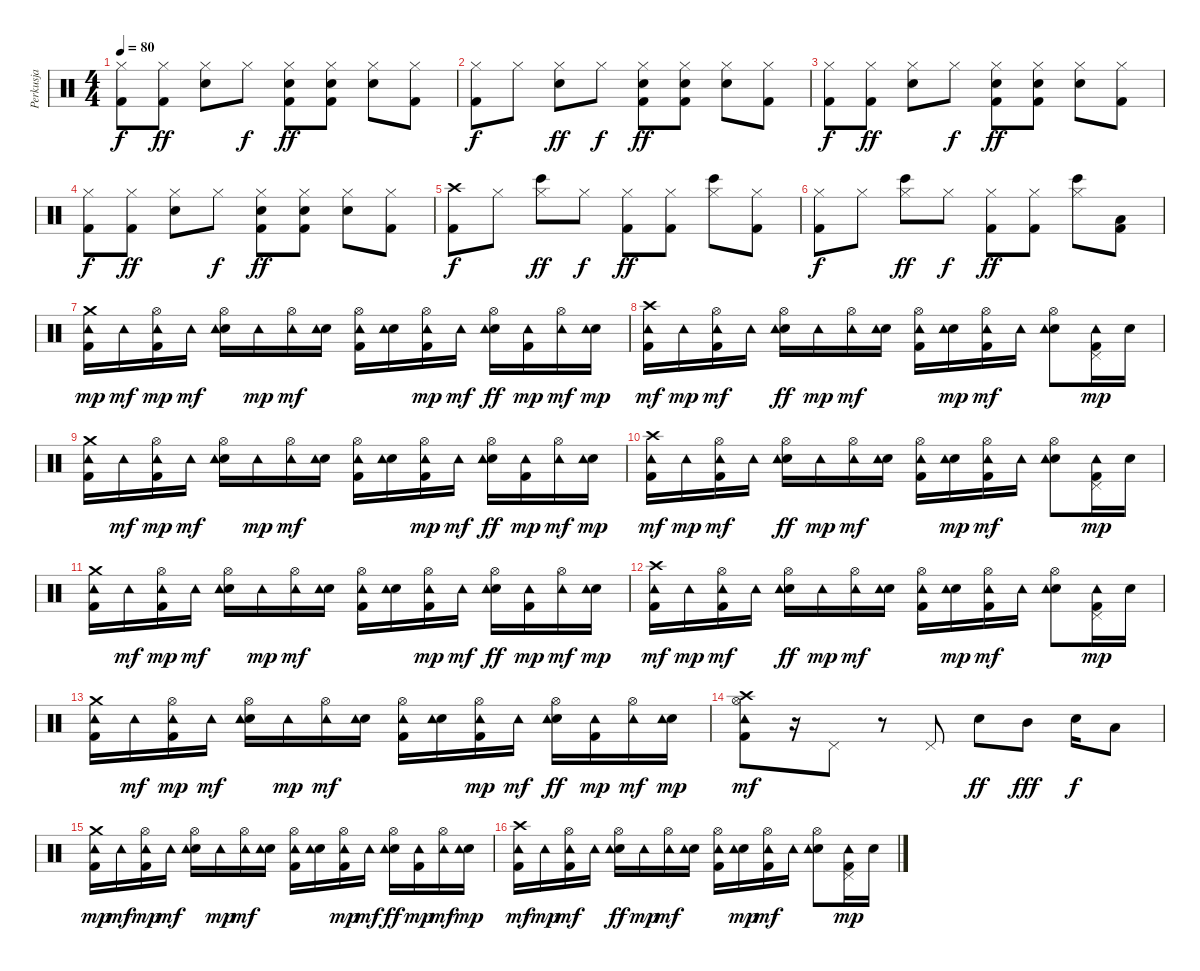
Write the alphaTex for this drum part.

\track ("Perkusja" "Perkusja") {instrument percussion}
\staff {score}
\articulation defaults
\ts (4 4)
\tempo 80
\clef neutral
\ks c
("Hi-Hat (closed)" "Kick (hit) 2").8{dy f} ("Kick (hit) 2" "Hi-Hat (closed)").8{dy ff} ("Hi-Hat (closed)" "Electric Snare (hit)").8 "Hi-Hat (closed)".8{dy f} ("Electric Snare (hit)" "Hi-Hat (closed)" "Kick (hit) 2").8{dy ff} ("Electric Snare (hit)" "Hi-Hat (closed)" "Kick (hit) 2").8 ("Hi-Hat (closed)" "Electric Snare (hit)").8 ("Kick (hit) 2" "Hi-Hat (closed)").8 |
("Hi-Hat (closed)" "Kick (hit) 2").8{dy f} "Hi-Hat (closed)".8 ("Hi-Hat (closed)" "Electric Snare (hit)").8{dy ff} "Hi-Hat (closed)".8{dy f} ("Electric Snare (hit)" "Hi-Hat (closed)" "Kick (hit) 2").8{dy ff} ("Electric Snare (hit)" "Hi-Hat (closed)" "Kick (hit) 2").8 ("Hi-Hat (closed)" "Electric Snare (hit)").8 ("Kick (hit) 2" "Hi-Hat (closed)").8 |
("Hi-Hat (closed)" "Kick (hit) 2").8{dy f} ("Kick (hit) 2" "Hi-Hat (closed)").8{dy ff} ("Hi-Hat (closed)" "Electric Snare (hit)").8 "Hi-Hat (closed)".8{dy f} ("Electric Snare (hit)" "Hi-Hat (closed)" "Kick (hit) 2").8{dy ff} ("Electric Snare (hit)" "Hi-Hat (closed)" "Kick (hit) 2").8 ("Hi-Hat (closed)" "Electric Snare (hit)").8 ("Kick (hit) 2" "Hi-Hat (closed)").8 |
("Hi-Hat (closed)" "Kick (hit) 2").8{dy f} ("Kick (hit) 2" "Hi-Hat (closed)").8{dy ff} ("Hi-Hat (closed)" "Electric Snare (hit)").8 "Hi-Hat (closed)".8{dy f} ("Electric Snare (hit)" "Hi-Hat (closed)" "Kick (hit) 2").8{dy ff} ("Electric Snare (hit)" "Hi-Hat (closed)" "Kick (hit) 2").8 ("Hi-Hat (closed)" "Electric Snare (hit)").8 ("Kick (hit) 2" "Hi-Hat (closed)").8 |
("Crash high (hit)" "Kick (hit) 2").8{dy f} "Hi-Hat (closed)".8 ("Hi-Hat (closed)" "Bongo High (hit)").8{dy ff} "Hi-Hat (closed)".8{dy f} ("Hi-Hat (closed)" "Kick (hit) 2").8{dy ff} ("Hi-Hat (closed)" "Kick (hit) 2").8 ("Hi-Hat (closed)" "Bongo High (hit)").8 ("Kick (hit) 2" "Hi-Hat (closed)").8 |
("Hi-Hat (closed)" "Kick (hit) 2").8{dy f} "Hi-Hat (closed)".8 ("Hi-Hat (closed)" "Bongo High (hit)").8{dy ff} "Hi-Hat (closed)".8{dy f} ("Hi-Hat (closed)" "Kick (hit) 2").8{dy ff} ("Hi-Hat (closed)" "Kick (hit) 2").8 ("Hi-Hat (closed)" "Bongo High (hit)").8 ("Kick (hit) 2" "Low Floor Tom (hit)").8 |
("Kick (hit) 2" "Tambourine (hit)" "Crash medium (hit)").16{dy mp} "Tambourine (hit)".16{dy mf} ("Kick (hit) 2" "Hi-Hat (open)" "Tambourine (hit)").16{dy mp} "Tambourine (hit)".16{dy mf} ("Electric Snare (hit)" "Hi-Hat (open)" "Tambourine (hit)").16 "Tambourine (hit)".16{dy mp} ("Hi-Hat (open)" "Tambourine (hit)").16{dy mf} ("Electric Snare (hit)" "Tambourine (hit)").16 ("Kick (hit) 2" "Hi-Hat (open)" "Tambourine (hit)").16 ("Electric Snare (hit)" "Tambourine (hit)").16 ("Kick (hit) 2" "Hi-Hat (open)" "Tambourine (hit)").16{dy mp} "Tambourine (hit)".16{dy mf} ("Electric Snare (hit)" "Hi-Hat (open)" "Tambourine (hit)").16{dy ff} ("Kick (hit) 2" "Tambourine (hit)").16{dy mp} ("Hi-Hat (open)" "Tambourine (hit)").16{dy mf} ("Electric Snare (hit)" "Tambourine (hit)").16{dy mp} |
("Kick (hit) 2" "Crash high (hit)" "Tambourine (hit)").16{dy mf} "Tambourine (hit)".16{dy mp} ("Kick (hit) 2" "Hi-Hat (open)" "Tambourine (hit)").16{dy mf} "Tambourine (hit)".16 ("Electric Snare (hit)" "Hi-Hat (open)" "Tambourine (hit)").16{dy ff} "Tambourine (hit)".16{dy mp} ("Hi-Hat (open)" "Tambourine (hit)").16{dy mf} ("Electric Snare (hit)" "Tambourine (hit)").16 ("Kick (hit) 2" "Hi-Hat (open)" "Tambourine (hit)").16 ("Electric Snare (hit)" "Tambourine (hit)").16{dy mp} ("Kick (hit) 2" "Hi-Hat (open)" "Tambourine (hit)").16{dy mf} "Tambourine (hit)".16 ("Electric Snare (hit)" "Hi-Hat (open)" "Tambourine (hit)").8 ("Kick (hit) 2" "Pedal Hi-Hat (hit)" "Tambourine (hit)").16{dy mp} "Electric Snare (hit)".16 |
("Kick (hit) 2" "Tambourine (hit)" "Crash medium (hit)").16 "Tambourine (hit)".16{dy mf} ("Kick (hit) 2" "Hi-Hat (open)" "Tambourine (hit)").16{dy mp} "Tambourine (hit)".16{dy mf} ("Electric Snare (hit)" "Hi-Hat (open)" "Tambourine (hit)").16 "Tambourine (hit)".16{dy mp} ("Hi-Hat (open)" "Tambourine (hit)").16{dy mf} ("Electric Snare (hit)" "Tambourine (hit)").16 ("Kick (hit) 2" "Hi-Hat (open)" "Tambourine (hit)").16 ("Electric Snare (hit)" "Tambourine (hit)").16 ("Kick (hit) 2" "Hi-Hat (open)" "Tambourine (hit)").16{dy mp} "Tambourine (hit)".16{dy mf} ("Electric Snare (hit)" "Hi-Hat (open)" "Tambourine (hit)").16{dy ff} ("Kick (hit) 2" "Tambourine (hit)").16{dy mp} ("Hi-Hat (open)" "Tambourine (hit)").16{dy mf} ("Electric Snare (hit)" "Tambourine (hit)").16{dy mp} |
("Kick (hit) 2" "Crash high (hit)" "Tambourine (hit)").16{dy mf} "Tambourine (hit)".16{dy mp} ("Kick (hit) 2" "Hi-Hat (open)" "Tambourine (hit)").16{dy mf} "Tambourine (hit)".16 ("Electric Snare (hit)" "Hi-Hat (open)" "Tambourine (hit)").16{dy ff} "Tambourine (hit)".16{dy mp} ("Hi-Hat (open)" "Tambourine (hit)").16{dy mf} ("Electric Snare (hit)" "Tambourine (hit)").16 ("Kick (hit) 2" "Hi-Hat (open)" "Tambourine (hit)").16 ("Electric Snare (hit)" "Tambourine (hit)").16{dy mp} ("Kick (hit) 2" "Hi-Hat (open)" "Tambourine (hit)").16{dy mf} "Tambourine (hit)".16 ("Electric Snare (hit)" "Hi-Hat (open)" "Tambourine (hit)").8 ("Kick (hit) 2" "Pedal Hi-Hat (hit)" "Tambourine (hit)").16{dy mp} "Electric Snare (hit)".16 |
("Kick (hit) 2" "Tambourine (hit)" "Crash medium (hit)").16 "Tambourine (hit)".16{dy mf} ("Kick (hit) 2" "Hi-Hat (open)" "Tambourine (hit)").16{dy mp} "Tambourine (hit)".16{dy mf} ("Electric Snare (hit)" "Hi-Hat (open)" "Tambourine (hit)").16 "Tambourine (hit)".16{dy mp} ("Hi-Hat (open)" "Tambourine (hit)").16{dy mf} ("Electric Snare (hit)" "Tambourine (hit)").16 ("Kick (hit) 2" "Hi-Hat (open)" "Tambourine (hit)").16 ("Electric Snare (hit)" "Tambourine (hit)").16 ("Kick (hit) 2" "Hi-Hat (open)" "Tambourine (hit)").16{dy mp} "Tambourine (hit)".16{dy mf} ("Electric Snare (hit)" "Hi-Hat (open)" "Tambourine (hit)").16{dy ff} ("Kick (hit) 2" "Tambourine (hit)").16{dy mp} ("Hi-Hat (open)" "Tambourine (hit)").16{dy mf} ("Electric Snare (hit)" "Tambourine (hit)").16{dy mp} |
("Kick (hit) 2" "Crash high (hit)" "Tambourine (hit)").16{dy mf} "Tambourine (hit)".16{dy mp} ("Kick (hit) 2" "Hi-Hat (open)" "Tambourine (hit)").16{dy mf} "Tambourine (hit)".16 ("Electric Snare (hit)" "Hi-Hat (open)" "Tambourine (hit)").16{dy ff} "Tambourine (hit)".16{dy mp} ("Hi-Hat (open)" "Tambourine (hit)").16{dy mf} ("Electric Snare (hit)" "Tambourine (hit)").16 ("Kick (hit) 2" "Hi-Hat (open)" "Tambourine (hit)").16 ("Electric Snare (hit)" "Tambourine (hit)").16{dy mp} ("Kick (hit) 2" "Hi-Hat (open)" "Tambourine (hit)").16{dy mf} "Tambourine (hit)".16 ("Electric Snare (hit)" "Hi-Hat (open)" "Tambourine (hit)").8 ("Kick (hit) 2" "Pedal Hi-Hat (hit)" "Tambourine (hit)").16{dy mp} "Electric Snare (hit)".16 |
("Kick (hit) 2" "Tambourine (hit)" "Crash medium (hit)").16 "Tambourine (hit)".16{dy mf} ("Kick (hit) 2" "Hi-Hat (open)" "Tambourine (hit)").16{dy mp} "Tambourine (hit)".16{dy mf} ("Electric Snare (hit)" "Hi-Hat (open)" "Tambourine (hit)").16 "Tambourine (hit)".16{dy mp} ("Hi-Hat (open)" "Tambourine (hit)").16{dy mf} ("Electric Snare (hit)" "Tambourine (hit)").16 ("Kick (hit) 2" "Hi-Hat (open)" "Tambourine (hit)").16 ("Electric Snare (hit)" "Tambourine (hit)").16 ("Kick (hit) 2" "Hi-Hat (open)" "Tambourine (hit)").16{dy mp} "Tambourine (hit)".16{dy mf} ("Electric Snare (hit)" "Hi-Hat (open)" "Tambourine (hit)").16{dy ff} ("Kick (hit) 2" "Tambourine (hit)").16{dy mp} ("Hi-Hat (open)" "Tambourine (hit)").16{dy mf} ("Electric Snare (hit)" "Tambourine (hit)").16{dy mp} |
("Kick (hit) 2" "Hi-Hat (open)" "Crash high (hit)" "Tambourine (hit)").8{dy mf} r.16 "Pedal Hi-Hat (hit)".8 r.8 "Pedal Hi-Hat (hit)".8 "Electric Snare (hit)".8{dy ff} "Mid Tom (hit)".8{dy fff} "Electric Snare (hit)".16{dy f} "Low Tom (hit)".8 |
("Kick (hit) 2" "Tambourine (hit)" "Crash medium (hit)").16{dy mp} "Tambourine (hit)".16{dy mf} ("Kick (hit) 2" "Hi-Hat (open)" "Tambourine (hit)").16{dy mp} "Tambourine (hit)".16{dy mf} ("Electric Snare (hit)" "Hi-Hat (open)" "Tambourine (hit)").16 "Tambourine (hit)".16{dy mp} ("Hi-Hat (open)" "Tambourine (hit)").16{dy mf} ("Electric Snare (hit)" "Tambourine (hit)").16 ("Kick (hit) 2" "Hi-Hat (open)" "Tambourine (hit)").16 ("Electric Snare (hit)" "Tambourine (hit)").16 ("Kick (hit) 2" "Hi-Hat (open)" "Tambourine (hit)").16{dy mp} "Tambourine (hit)".16{dy mf} ("Electric Snare (hit)" "Hi-Hat (open)" "Tambourine (hit)").16{dy ff} ("Kick (hit) 2" "Tambourine (hit)").16{dy mp} ("Hi-Hat (open)" "Tambourine (hit)").16{dy mf} ("Electric Snare (hit)" "Tambourine (hit)").16{dy mp} |
("Kick (hit) 2" "Crash high (hit)" "Tambourine (hit)").16{dy mf} "Tambourine (hit)".16{dy mp} ("Kick (hit) 2" "Hi-Hat (open)" "Tambourine (hit)").16{dy mf} "Tambourine (hit)".16 ("Electric Snare (hit)" "Hi-Hat (open)" "Tambourine (hit)").16{dy ff} "Tambourine (hit)".16{dy mp} ("Hi-Hat (open)" "Tambourine (hit)").16{dy mf} ("Electric Snare (hit)" "Tambourine (hit)").16 ("Kick (hit) 2" "Hi-Hat (open)" "Tambourine (hit)").16 ("Electric Snare (hit)" "Tambourine (hit)").16{dy mp} ("Kick (hit) 2" "Hi-Hat (open)" "Tambourine (hit)").16{dy mf} "Tambourine (hit)".16 ("Electric Snare (hit)" "Hi-Hat (open)" "Tambourine (hit)").8 ("Kick (hit) 2" "Pedal Hi-Hat (hit)" "Tambourine (hit)").16{dy mp} "Electric Snare (hit)".16
